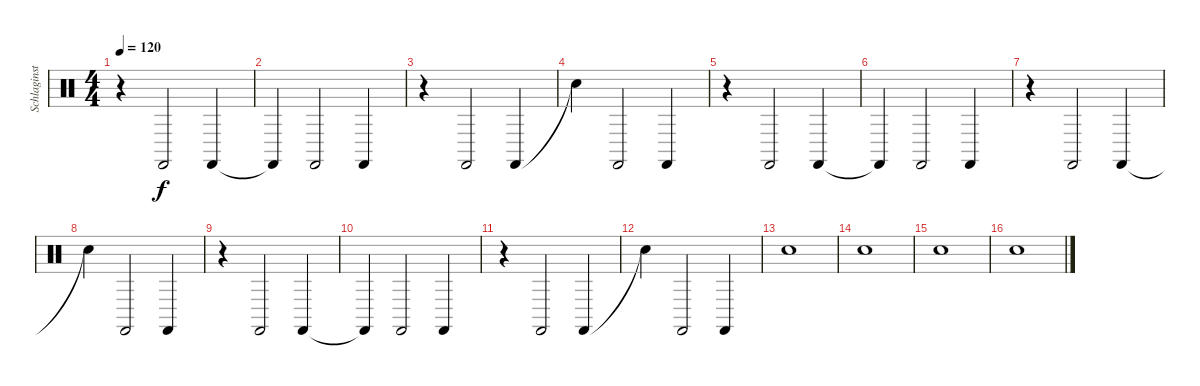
\track ("Schlaginstrumente - Auswahl" "Schlaginst") {instrument percussion}
\staff {score}
\articulation defaults
\ts (4 4)
\tempo 120
\clef neutral
\ks c
r.4{dy f} "Castanets (hit)".2 "Castanets (hit)".4 |
"Castanets (hit)"{t}.4 "Castanets (hit)".2 "Castanets (hit)".4 |
r.4 "Castanets (hit)".2 "Castanets (hit)".4 |
"Snare (hit)"{t}.4 "Castanets (hit)".2 "Castanets (hit)".4 |
r.4 "Castanets (hit)".2 "Castanets (hit)".4 |
"Castanets (hit)"{t}.4 "Castanets (hit)".2 "Castanets (hit)".4 |
r.4 "Castanets (hit)".2 "Castanets (hit)".4 |
"Snare (hit)"{t}.4 "Castanets (hit)".2 "Castanets (hit)".4 |
r.4 "Castanets (hit)".2 "Castanets (hit)".4 |
"Castanets (hit)"{t}.4 "Castanets (hit)".2 "Castanets (hit)".4 |
r.4 "Castanets (hit)".2 "Castanets (hit)".4 |
"Snare (hit)"{t}.4 "Castanets (hit)".2 "Castanets (hit)".4 |
"Hand Clap (hit)".1 |
"Hand Clap (hit)".1 |
"Hand Clap (hit)".1 |
"Hand Clap (hit)".1
